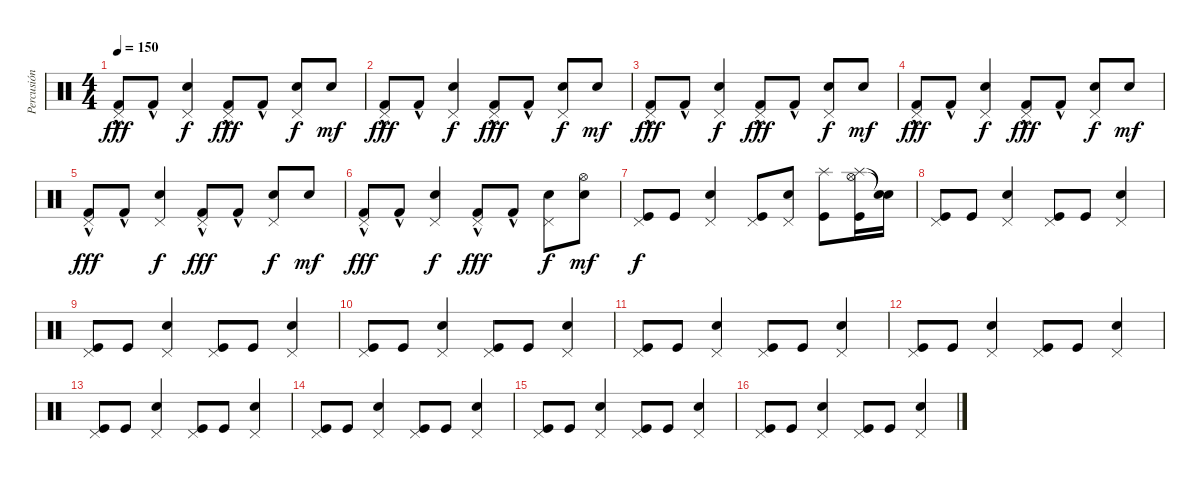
\track ("Percusión" "Percusión") {instrument percussion}
\staff {score}
\articulation defaults
\ts (4 4)
\tempo 150
\clef neutral
\ks c
("Pedal Hi-Hat (hit)" "Kick (hit) 2"{hac}).8{dy fff} "Kick (hit) 2"{hac}.8 ("Pedal Hi-Hat (hit)" "Electric Snare (hit)").4{dy f} ("Pedal Hi-Hat (hit)" "Kick (hit) 2"{hac}).8{dy fff} "Kick (hit) 2"{hac}.8 ("Pedal Hi-Hat (hit)" "Electric Snare (hit)").8{dy f} "Electric Snare (hit)".8{dy mf} |
("Pedal Hi-Hat (hit)" "Kick (hit) 2"{hac}).8{dy fff} "Kick (hit) 2"{hac}.8 ("Pedal Hi-Hat (hit)" "Electric Snare (hit)").4{dy f} ("Pedal Hi-Hat (hit)" "Kick (hit) 2"{hac}).8{dy fff} "Kick (hit) 2"{hac}.8 ("Pedal Hi-Hat (hit)" "Electric Snare (hit)").8{dy f} "Electric Snare (hit)".8{dy mf} |
("Pedal Hi-Hat (hit)" "Kick (hit) 2"{hac}).8{dy fff} "Kick (hit) 2"{hac}.8 ("Pedal Hi-Hat (hit)" "Electric Snare (hit)").4{dy f} ("Pedal Hi-Hat (hit)" "Kick (hit) 2"{hac}).8{dy fff} "Kick (hit) 2"{hac}.8 ("Pedal Hi-Hat (hit)" "Electric Snare (hit)").8{dy f} "Electric Snare (hit)".8{dy mf} |
("Pedal Hi-Hat (hit)" "Kick (hit) 2"{hac}).8{dy fff} "Kick (hit) 2"{hac}.8 ("Pedal Hi-Hat (hit)" "Electric Snare (hit)").4{dy f} ("Pedal Hi-Hat (hit)" "Kick (hit) 2"{hac}).8{dy fff} "Kick (hit) 2"{hac}.8 ("Pedal Hi-Hat (hit)" "Electric Snare (hit)").8{dy f} "Electric Snare (hit)".8{dy mf} |
("Pedal Hi-Hat (hit)" "Kick (hit) 2"{hac}).8{dy fff} "Kick (hit) 2"{hac}.8 ("Pedal Hi-Hat (hit)" "Electric Snare (hit)").4{dy f} ("Pedal Hi-Hat (hit)" "Kick (hit) 2"{hac}).8{dy fff} "Kick (hit) 2"{hac}.8 ("Pedal Hi-Hat (hit)" "Electric Snare (hit)").8{dy f} "Electric Snare (hit)".8{dy mf} |
("Pedal Hi-Hat (hit)" "Kick (hit) 2"{hac}).8{dy fff} "Kick (hit) 2"{hac}.8 ("Pedal Hi-Hat (hit)" "Electric Snare (hit)").4{dy f} ("Pedal Hi-Hat (hit)" "Kick (hit) 2"{hac}).8{dy fff} "Kick (hit) 2"{hac}.8 ("Pedal Hi-Hat (hit)" "Electric Snare (hit)").8{dy f} ("Hi-Hat (open)" "Electric Snare (hit)").8{dy mf} |
("Pedal Hi-Hat (hit)" "Kick (hit)").8{dy f} "Kick (hit)".8 ("Pedal Hi-Hat (hit)" "Snare (hit) 2").4 ("Pedal Hi-Hat (hit)" "Kick (hit)").8 ("Pedal Hi-Hat (hit)" "Snare (hit) 2").8 ("Splash (hit)" "Kick (hit)").8 ("Splash (hit)" "Hi-Hat (open)" "Kick (hit)").16 ("Snare (hit)"{t} "Snare (hit)"{t}).16 |
("Pedal Hi-Hat (hit)" "Kick (hit)").8 "Kick (hit)".8 ("Pedal Hi-Hat (hit)" "Snare (hit) 2").4 ("Pedal Hi-Hat (hit)" "Kick (hit)").8 "Kick (hit)".8 ("Pedal Hi-Hat (hit)" "Snare (hit) 2").4 |
("Pedal Hi-Hat (hit)" "Kick (hit)").8 "Kick (hit)".8 ("Pedal Hi-Hat (hit)" "Snare (hit) 2").4 ("Pedal Hi-Hat (hit)" "Kick (hit)").8 "Kick (hit)".8 ("Pedal Hi-Hat (hit)" "Snare (hit) 2").4 |
("Pedal Hi-Hat (hit)" "Kick (hit)").8 "Kick (hit)".8 ("Pedal Hi-Hat (hit)" "Snare (hit) 2").4 ("Pedal Hi-Hat (hit)" "Kick (hit)").8 "Kick (hit)".8 ("Pedal Hi-Hat (hit)" "Snare (hit) 2").4 |
("Pedal Hi-Hat (hit)" "Kick (hit)").8 "Kick (hit)".8 ("Pedal Hi-Hat (hit)" "Snare (hit) 2").4 ("Pedal Hi-Hat (hit)" "Kick (hit)").8 "Kick (hit)".8 ("Pedal Hi-Hat (hit)" "Snare (hit) 2").4 |
("Pedal Hi-Hat (hit)" "Kick (hit)").8 "Kick (hit)".8 ("Pedal Hi-Hat (hit)" "Snare (hit) 2").4 ("Pedal Hi-Hat (hit)" "Kick (hit)").8 "Kick (hit)".8 ("Pedal Hi-Hat (hit)" "Snare (hit) 2").4 |
("Pedal Hi-Hat (hit)" "Kick (hit)").8 "Kick (hit)".8 ("Pedal Hi-Hat (hit)" "Snare (hit) 2").4 ("Pedal Hi-Hat (hit)" "Kick (hit)").8 "Kick (hit)".8 ("Pedal Hi-Hat (hit)" "Snare (hit) 2").4 |
("Pedal Hi-Hat (hit)" "Kick (hit)").8 "Kick (hit)".8 ("Pedal Hi-Hat (hit)" "Snare (hit) 2").4 ("Pedal Hi-Hat (hit)" "Kick (hit)").8 "Kick (hit)".8 ("Pedal Hi-Hat (hit)" "Snare (hit) 2").4 |
("Pedal Hi-Hat (hit)" "Kick (hit)").8 "Kick (hit)".8 ("Pedal Hi-Hat (hit)" "Snare (hit) 2").4 ("Pedal Hi-Hat (hit)" "Kick (hit)").8 "Kick (hit)".8 ("Pedal Hi-Hat (hit)" "Snare (hit) 2").4 |
("Pedal Hi-Hat (hit)" "Kick (hit)").8 "Kick (hit)".8 ("Pedal Hi-Hat (hit)" "Snare (hit) 2").4 ("Pedal Hi-Hat (hit)" "Kick (hit)").8 "Kick (hit)".8 ("Pedal Hi-Hat (hit)" "Snare (hit) 2").4
